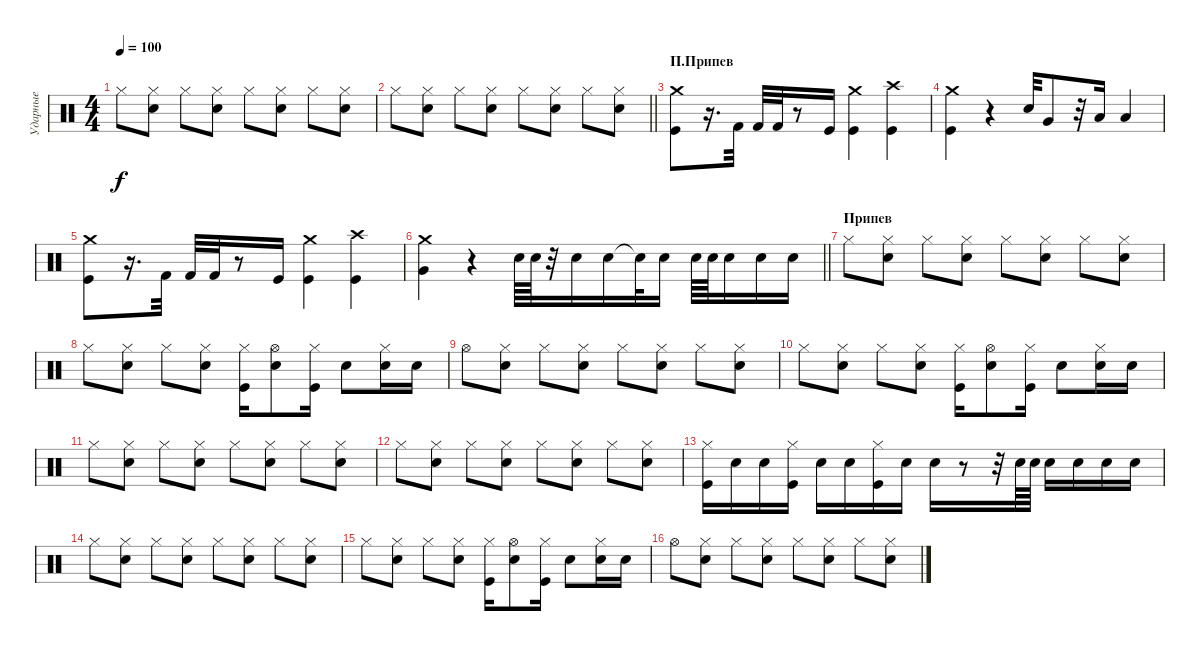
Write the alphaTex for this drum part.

\track ("Ударные" "Ударные") {instrument percussion}
\staff {score}
\articulation defaults
\ts (4 4)
\tempo 100
\clef neutral
\ks c "Hi-Hat (closed)".8{dy f}
("Hi-Hat (closed)" "Snare (hit) 2").8 "Hi-Hat (closed)".8 ("Hi-Hat (closed)" "Snare (hit) 2").8 "Hi-Hat (closed)".8 ("Hi-Hat (closed)" "Snare (hit) 2").8 "Hi-Hat (closed)".8 ("Hi-Hat (closed)" "Snare (hit) 2").8 |
\barLineRight lightlight "Hi-Hat (closed)".8
("Hi-Hat (closed)" "Snare (hit) 2").8 "Hi-Hat (closed)".8 ("Hi-Hat (closed)" "Snare (hit) 2").8 "Hi-Hat (closed)".8 ("Hi-Hat (closed)" "Snare (hit) 2").8 "Hi-Hat (closed)".8 ("Hi-Hat (closed)" "Snare (hit) 2").8 |
\section ("" "П.Припев")
("Kick (hit)" "Crash medium (hit)").8 r.16{d} "Kick (hit) 2".32 "Kick (hit) 2".32 "Kick (hit) 2".32 r.8 "Kick (hit)".16 ("Kick (hit)" "Crash medium (hit)").4 ("Kick (hit)" "Crash high (hit)").4 |
("Kick (hit)" "Crash medium (hit)").4 r.4 "Snare (hit) 2".32 "Very Low Tom (hit)".8 r.32 "Low Tom (hit)".16 "Low Floor Tom (hit)".4 |
("Kick (hit)" "Crash medium (hit)").8 r.16{d} "Kick (hit) 2".32 "Kick (hit) 2".32 "Kick (hit) 2".32 r.8 "Kick (hit)".16 ("Kick (hit)" "Crash medium (hit)").4 ("Kick (hit)" "Crash high (hit)").4 |
\barLineRight lightlight
("Crash medium (hit)" "Very Low Tom (hit)").4 r.4 "Electric Snare (hit)".64 "Electric Snare (hit)".64 r.32 "Electric Snare (hit)".16 "Electric Snare (hit)".16 "Snare (hit)"{t}.32 "Electric Snare (hit)".16 "Electric Snare (hit)".64 "Electric Snare (hit)".64 "Electric Snare (hit)".16 "Electric Snare (hit)".16 "Electric Snare (hit)".16 |
\section ("" "Припев")
"Hi-Hat (closed)".8 ("Hi-Hat (closed)" "Snare (hit) 2").8 "Hi-Hat (closed)".8 ("Hi-Hat (closed)" "Snare (hit) 2").8 "Hi-Hat (closed)".8 ("Hi-Hat (closed)" "Snare (hit) 2").8 "Hi-Hat (closed)".8 ("Hi-Hat (closed)" "Snare (hit) 2").8 |
"Hi-Hat (closed)".8 ("Hi-Hat (closed)" "Snare (hit) 2").8 "Hi-Hat (closed)".8 ("Hi-Hat (closed)" "Snare (hit) 2").8 ("Hi-Hat (closed)" "Kick (hit)").16 ("Hi-Hat (open)" "Electric Snare (hit)").8 ("Hi-Hat (closed)" "Kick (hit)").16 "Electric Snare (hit)".8 ("Hi-Hat (closed)" "Electric Snare (hit)").16 "Electric Snare (hit)".16 |
"Hi-Hat (open)".8 ("Hi-Hat (closed)" "Snare (hit) 2").8 "Hi-Hat (closed)".8 ("Hi-Hat (closed)" "Snare (hit) 2").8 "Hi-Hat (closed)".8 ("Hi-Hat (closed)" "Snare (hit) 2").8 "Hi-Hat (closed)".8 ("Hi-Hat (closed)" "Snare (hit) 2").8 |
"Hi-Hat (closed)".8 ("Hi-Hat (closed)" "Snare (hit) 2").8 "Hi-Hat (closed)".8 ("Hi-Hat (closed)" "Snare (hit) 2").8 ("Hi-Hat (closed)" "Kick (hit)").16 ("Hi-Hat (open)" "Electric Snare (hit)").8 ("Hi-Hat (closed)" "Kick (hit)").16 "Electric Snare (hit)".8 ("Hi-Hat (closed)" "Electric Snare (hit)").16 "Electric Snare (hit)".16 |
"Hi-Hat (closed)".8 ("Hi-Hat (closed)" "Snare (hit) 2").8 "Hi-Hat (closed)".8 ("Hi-Hat (closed)" "Snare (hit) 2").8 "Hi-Hat (closed)".8 ("Hi-Hat (closed)" "Snare (hit) 2").8 "Hi-Hat (closed)".8 ("Hi-Hat (closed)" "Snare (hit) 2").8 |
"Hi-Hat (closed)".8 ("Hi-Hat (closed)" "Snare (hit) 2").8 "Hi-Hat (closed)".8 ("Hi-Hat (closed)" "Snare (hit) 2").8 "Hi-Hat (closed)".8 ("Hi-Hat (closed)" "Snare (hit) 2").8 "Hi-Hat (closed)".8 ("Hi-Hat (closed)" "Snare (hit) 2").8 |
("Hi-Hat (closed)" "Kick (hit)").16 "Electric Snare (hit)".16 "Electric Snare (hit)".16 ("Hi-Hat (closed)" "Kick (hit)").16 "Electric Snare (hit)".16 "Electric Snare (hit)".16 ("Hi-Hat (closed)" "Kick (hit)").16 "Electric Snare (hit)".16 "Electric Snare (hit)".16 r.8 r.32 "Electric Snare (hit)".64 "Electric Snare (hit)".64 "Electric Snare (hit)".16 "Electric Snare (hit)".16 "Electric Snare (hit)".16 "Electric Snare (hit)".16 |
"Hi-Hat (closed)".8 ("Hi-Hat (closed)" "Snare (hit) 2").8 "Hi-Hat (closed)".8 ("Hi-Hat (closed)" "Snare (hit) 2").8 "Hi-Hat (closed)".8 ("Hi-Hat (closed)" "Snare (hit) 2").8 "Hi-Hat (closed)".8 ("Hi-Hat (closed)" "Snare (hit) 2").8 |
"Hi-Hat (closed)".8 ("Hi-Hat (closed)" "Snare (hit) 2").8 "Hi-Hat (closed)".8 ("Hi-Hat (closed)" "Snare (hit) 2").8 ("Hi-Hat (closed)" "Kick (hit)").16 ("Hi-Hat (open)" "Electric Snare (hit)").8 ("Hi-Hat (closed)" "Kick (hit)").16 "Electric Snare (hit)".8 ("Hi-Hat (closed)" "Electric Snare (hit)").16 "Electric Snare (hit)".16 |
"Hi-Hat (open)".8 ("Hi-Hat (closed)" "Snare (hit) 2").8 "Hi-Hat (closed)".8 ("Hi-Hat (closed)" "Snare (hit) 2").8 "Hi-Hat (closed)".8 ("Hi-Hat (closed)" "Snare (hit) 2").8 "Hi-Hat (closed)".8 ("Hi-Hat (closed)" "Snare (hit) 2").8
